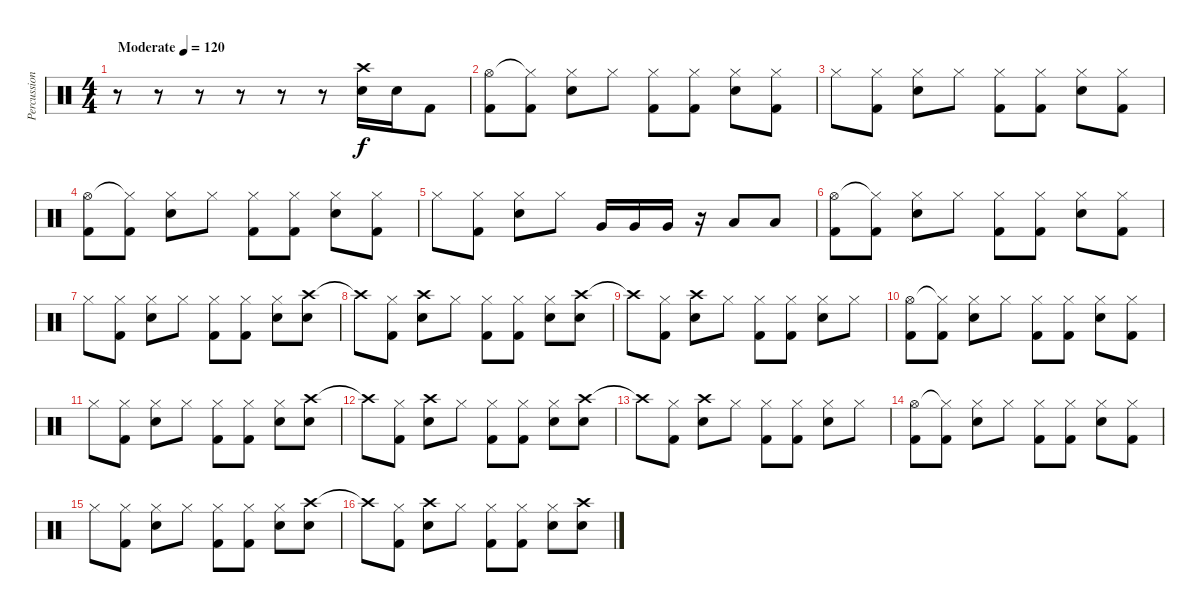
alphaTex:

\track ("Percussion" "Percussion") {instrument percussion}
\staff {score}
\articulation defaults
\ts (4 4)
\tempo (120 "Moderate")
\clef neutral
\ks c
r.8{dy f} r.8 r.8 r.8 r.8 r.8 ("Crash high (hit)" "Snare (hit) 2").16 "Snare (hit) 2".16 "Kick (hit) 2".8 |
("Hi-Hat (open)" "Kick (hit) 2").8 ("Hi-Hat (closed)"{t} "Kick (hit) 2").8 ("Hi-Hat (closed)" "Snare (hit) 2").8 "Hi-Hat (closed)".8 ("Hi-Hat (closed)" "Kick (hit) 2").8 ("Hi-Hat (closed)" "Kick (hit) 2").8 ("Hi-Hat (closed)" "Snare (hit) 2").8 ("Hi-Hat (closed)" "Kick (hit) 2").8 |
"Hi-Hat (closed)".8 ("Hi-Hat (closed)" "Kick (hit) 2").8 ("Hi-Hat (closed)" "Snare (hit) 2").8 "Hi-Hat (closed)".8 ("Hi-Hat (closed)" "Kick (hit) 2").8 ("Hi-Hat (closed)" "Kick (hit) 2").8 ("Hi-Hat (closed)" "Snare (hit) 2").8 ("Hi-Hat (closed)" "Kick (hit) 2").8 |
("Hi-Hat (open)" "Kick (hit) 2").8 ("Hi-Hat (closed)"{t} "Kick (hit) 2").8 ("Hi-Hat (closed)" "Snare (hit) 2").8 "Hi-Hat (closed)".8 ("Hi-Hat (closed)" "Kick (hit) 2").8 ("Hi-Hat (closed)" "Kick (hit) 2").8 ("Hi-Hat (closed)" "Snare (hit) 2").8 ("Hi-Hat (closed)" "Kick (hit) 2").8 |
"Hi-Hat (closed)".8 ("Hi-Hat (closed)" "Kick (hit) 2").8 ("Hi-Hat (closed)" "Snare (hit) 2").8 "Hi-Hat (closed)".8 "Very Low Tom (hit)".16 "Very Low Tom (hit)".16 "Very Low Tom (hit)".16 r.16 "Low Floor Tom (hit)".8 "Low Floor Tom (hit)".8 |
("Hi-Hat (open)" "Kick (hit) 2").8 ("Hi-Hat (closed)"{t} "Kick (hit) 2").8 ("Hi-Hat (closed)" "Snare (hit) 2").8 "Hi-Hat (closed)".8 ("Hi-Hat (closed)" "Kick (hit) 2").8 ("Hi-Hat (closed)" "Kick (hit) 2").8 ("Hi-Hat (closed)" "Snare (hit) 2").8 ("Hi-Hat (closed)" "Kick (hit) 2").8 |
"Hi-Hat (closed)".8 ("Hi-Hat (closed)" "Kick (hit) 2").8 ("Hi-Hat (closed)" "Snare (hit) 2").8 "Hi-Hat (closed)".8 ("Hi-Hat (closed)" "Kick (hit) 2").8 ("Hi-Hat (closed)" "Kick (hit) 2").8 ("Hi-Hat (closed)" "Snare (hit) 2").8 ("Crash high (hit)" "Snare (hit) 2").8 |
"Crash high (hit)"{t}.8 ("Hi-Hat (closed)" "Kick (hit) 2").8 ("Crash high (hit)" "Snare (hit) 2").8 "Hi-Hat (closed)".8 ("Hi-Hat (closed)" "Kick (hit) 2").8 ("Hi-Hat (closed)" "Kick (hit) 2").8 ("Hi-Hat (closed)" "Snare (hit) 2").8 ("Crash high (hit)" "Snare (hit) 2").8 |
"Crash high (hit)"{t}.8 ("Hi-Hat (closed)" "Kick (hit) 2").8 ("Crash high (hit)" "Snare (hit) 2").8 "Hi-Hat (closed)".8 ("Hi-Hat (closed)" "Kick (hit) 2").8 ("Hi-Hat (closed)" "Kick (hit) 2").8 ("Hi-Hat (closed)" "Snare (hit) 2").8 "Hi-Hat (closed)".8 |
("Hi-Hat (open)" "Kick (hit) 2").8 ("Hi-Hat (closed)"{t} "Kick (hit) 2").8 ("Hi-Hat (closed)" "Snare (hit) 2").8 "Hi-Hat (closed)".8 ("Hi-Hat (closed)" "Kick (hit) 2").8 ("Hi-Hat (closed)" "Kick (hit) 2").8 ("Hi-Hat (closed)" "Snare (hit) 2").8 ("Hi-Hat (closed)" "Kick (hit) 2").8 |
"Hi-Hat (closed)".8 ("Hi-Hat (closed)" "Kick (hit) 2").8 ("Hi-Hat (closed)" "Snare (hit) 2").8 "Hi-Hat (closed)".8 ("Hi-Hat (closed)" "Kick (hit) 2").8 ("Hi-Hat (closed)" "Kick (hit) 2").8 ("Hi-Hat (closed)" "Snare (hit) 2").8 ("Crash high (hit)" "Snare (hit) 2").8 |
"Crash high (hit)"{t}.8 ("Hi-Hat (closed)" "Kick (hit) 2").8 ("Crash high (hit)" "Snare (hit) 2").8 "Hi-Hat (closed)".8 ("Hi-Hat (closed)" "Kick (hit) 2").8 ("Hi-Hat (closed)" "Kick (hit) 2").8 ("Hi-Hat (closed)" "Snare (hit) 2").8 ("Crash high (hit)" "Snare (hit) 2").8 |
"Crash high (hit)"{t}.8 ("Hi-Hat (closed)" "Kick (hit) 2").8 ("Crash high (hit)" "Snare (hit) 2").8 "Hi-Hat (closed)".8 ("Hi-Hat (closed)" "Kick (hit) 2").8 ("Hi-Hat (closed)" "Kick (hit) 2").8 ("Hi-Hat (closed)" "Snare (hit) 2").8 "Hi-Hat (closed)".8 |
("Hi-Hat (open)" "Kick (hit) 2").8 ("Hi-Hat (closed)"{t} "Kick (hit) 2").8 ("Hi-Hat (closed)" "Snare (hit) 2").8 "Hi-Hat (closed)".8 ("Hi-Hat (closed)" "Kick (hit) 2").8 ("Hi-Hat (closed)" "Kick (hit) 2").8 ("Hi-Hat (closed)" "Snare (hit) 2").8 ("Hi-Hat (closed)" "Kick (hit) 2").8 |
"Hi-Hat (closed)".8 ("Hi-Hat (closed)" "Kick (hit) 2").8 ("Hi-Hat (closed)" "Snare (hit) 2").8 "Hi-Hat (closed)".8 ("Hi-Hat (closed)" "Kick (hit) 2").8 ("Hi-Hat (closed)" "Kick (hit) 2").8 ("Hi-Hat (closed)" "Snare (hit) 2").8 ("Crash high (hit)" "Snare (hit) 2").8 |
"Crash high (hit)"{t}.8 ("Hi-Hat (closed)" "Kick (hit) 2").8 ("Crash high (hit)" "Snare (hit) 2").8 "Hi-Hat (closed)".8 ("Hi-Hat (closed)" "Kick (hit) 2").8 ("Hi-Hat (closed)" "Kick (hit) 2").8 ("Hi-Hat (closed)" "Snare (hit) 2").8 ("Crash high (hit)" "Snare (hit) 2").8
